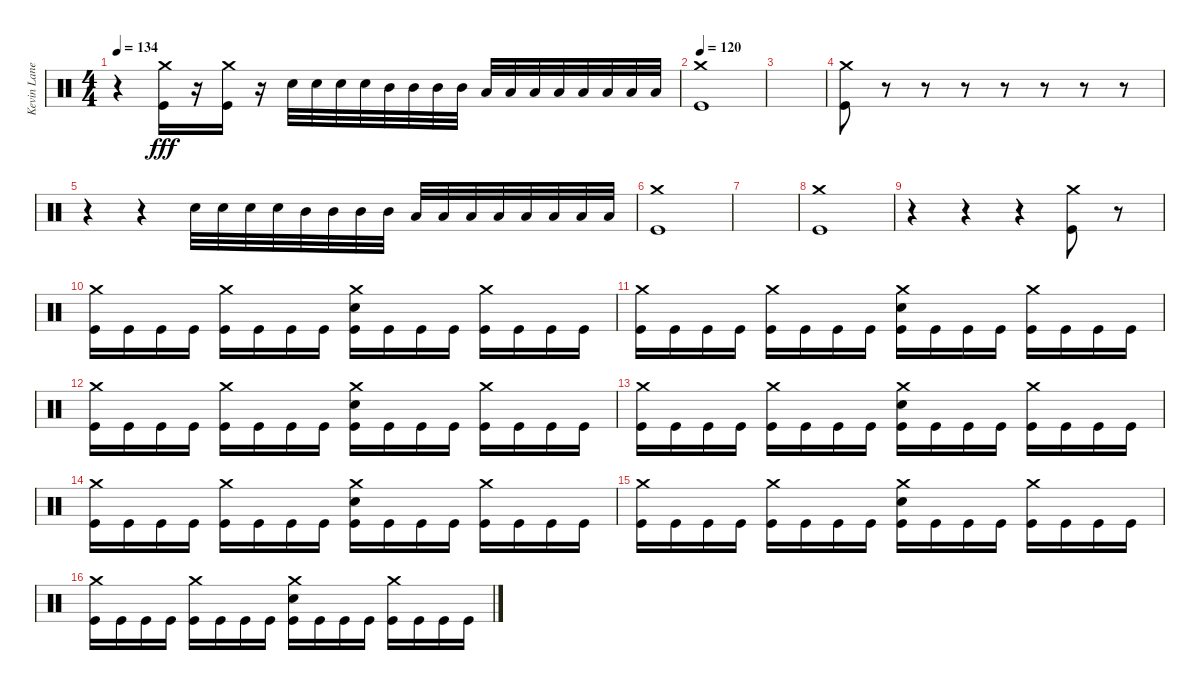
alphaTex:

\track ("Kevin Lane" "Kevin Lane") {instrument percussion}
\staff {score}
\articulation defaults
\ts (4 4)
\tempo 134
\clef neutral
\ks c
r.4{dy fff} ("Crash medium (hit)" "Kick (hit)").16{volume 13} r.16{volume 0} ("Crash medium (hit)" "Kick (hit)").16{volume 13} r.16{volume 0} "Snare (hit) 2".32{volume 13} "Snare (hit) 2".32 "Snare (hit) 2".32 "Snare (hit) 2".32 "Mid Tom (hit)".32 "Mid Tom (hit)".32 "Mid Tom (hit)".32 "Mid Tom (hit)".32 "Low Tom (hit)".32 "Low Tom (hit)".32 "Low Tom (hit)".32 "Low Tom (hit)".32 "Low Floor Tom (hit)".32 "Low Floor Tom (hit)".32 "Low Floor Tom (hit)".32 "Low Floor Tom (hit)".32 |
\tempo 121
\tempo 120
("Crash medium (hit)" "Kick (hit)").1 |
|
("Crash medium (hit)" "Kick (hit)").8{volume 13} r.8{volume 0} r.8 r.8 r.8 r.8 r.8 r.8 |
r.4 r.4 "Snare (hit) 2".32{volume 13} "Snare (hit) 2".32 "Snare (hit) 2".32 "Snare (hit) 2".32 "Mid Tom (hit)".32 "Mid Tom (hit)".32 "Mid Tom (hit)".32 "Mid Tom (hit)".32 "Low Tom (hit)".32 "Low Tom (hit)".32 "Low Tom (hit)".32 "Low Tom (hit)".32 "Low Floor Tom (hit)".32 "Low Floor Tom (hit)".32 "Low Floor Tom (hit)".32 "Low Floor Tom (hit)".32 |
("Crash medium (hit)" "Kick (hit)").1 |
|
("Crash medium (hit)" "Kick (hit)").1 |
r.4 r.4 r.4 ("Crash medium (hit)" "Kick (hit)").8{volume 13} r.8{volume 0} |
("Crash medium (hit)" "Kick (hit)").16{volume 13} "Kick (hit)".16 "Kick (hit)".16 "Kick (hit)".16 ("Crash medium (hit)" "Kick (hit)").16 "Kick (hit)".16 "Kick (hit)".16 "Kick (hit)".16 ("Crash medium (hit)" "Snare (hit) 2" "Kick (hit)").16 "Kick (hit)".16 "Kick (hit)".16 "Kick (hit)".16 ("Crash medium (hit)" "Kick (hit)").16 "Kick (hit)".16 "Kick (hit)".16 "Kick (hit)".16 |
("Crash medium (hit)" "Kick (hit)").16 "Kick (hit)".16 "Kick (hit)".16 "Kick (hit)".16 ("Crash medium (hit)" "Kick (hit)").16 "Kick (hit)".16 "Kick (hit)".16 "Kick (hit)".16 ("Crash medium (hit)" "Snare (hit) 2" "Kick (hit)").16 "Kick (hit)".16 "Kick (hit)".16 "Kick (hit)".16 ("Crash medium (hit)" "Kick (hit)").16 "Kick (hit)".16 "Kick (hit)".16 "Kick (hit)".16 |
("Crash medium (hit)" "Kick (hit)").16 "Kick (hit)".16 "Kick (hit)".16 "Kick (hit)".16 ("Crash medium (hit)" "Kick (hit)").16 "Kick (hit)".16 "Kick (hit)".16 "Kick (hit)".16 ("Crash medium (hit)" "Snare (hit) 2" "Kick (hit)").16 "Kick (hit)".16 "Kick (hit)".16 "Kick (hit)".16 ("Crash medium (hit)" "Kick (hit)").16 "Kick (hit)".16 "Kick (hit)".16 "Kick (hit)".16 |
("Crash medium (hit)" "Kick (hit)").16 "Kick (hit)".16 "Kick (hit)".16 "Kick (hit)".16 ("Crash medium (hit)" "Kick (hit)").16 "Kick (hit)".16 "Kick (hit)".16 "Kick (hit)".16 ("Crash medium (hit)" "Snare (hit) 2" "Kick (hit)").16 "Kick (hit)".16 "Kick (hit)".16 "Kick (hit)".16 ("Crash medium (hit)" "Kick (hit)").16 "Kick (hit)".16 "Kick (hit)".16 "Kick (hit)".16 |
("Crash medium (hit)" "Kick (hit)").16 "Kick (hit)".16 "Kick (hit)".16 "Kick (hit)".16 ("Crash medium (hit)" "Kick (hit)").16 "Kick (hit)".16 "Kick (hit)".16 "Kick (hit)".16 ("Crash medium (hit)" "Snare (hit) 2" "Kick (hit)").16 "Kick (hit)".16 "Kick (hit)".16 "Kick (hit)".16 ("Crash medium (hit)" "Kick (hit)").16 "Kick (hit)".16 "Kick (hit)".16 "Kick (hit)".16 |
("Crash medium (hit)" "Kick (hit)").16 "Kick (hit)".16 "Kick (hit)".16 "Kick (hit)".16 ("Crash medium (hit)" "Kick (hit)").16 "Kick (hit)".16 "Kick (hit)".16 "Kick (hit)".16 ("Crash medium (hit)" "Snare (hit) 2" "Kick (hit)").16 "Kick (hit)".16 "Kick (hit)".16 "Kick (hit)".16 ("Crash medium (hit)" "Kick (hit)").16 "Kick (hit)".16 "Kick (hit)".16 "Kick (hit)".16 |
("Crash medium (hit)" "Kick (hit)").16 "Kick (hit)".16 "Kick (hit)".16 "Kick (hit)".16 ("Crash medium (hit)" "Kick (hit)").16 "Kick (hit)".16 "Kick (hit)".16 "Kick (hit)".16 ("Crash medium (hit)" "Snare (hit) 2" "Kick (hit)").16 "Kick (hit)".16 "Kick (hit)".16 "Kick (hit)".16 ("Crash medium (hit)" "Kick (hit)").16 "Kick (hit)".16 "Kick (hit)".16 "Kick (hit)".16
